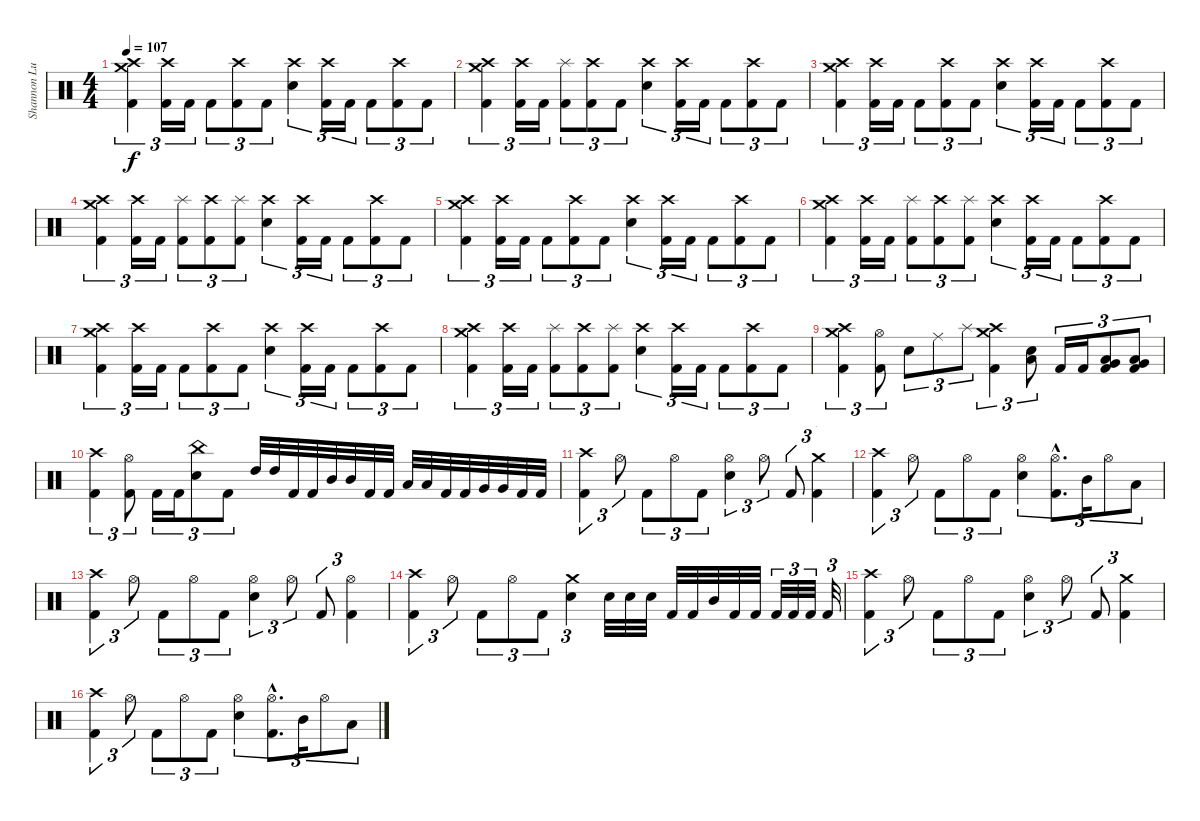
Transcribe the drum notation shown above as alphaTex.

\track ("Shannon Lucas (Drums)" "Shannon Lu") {instrument percussion}
\staff {score}
\articulation defaults
\ts (4 4)
\tempo 107
\clef neutral
\ks c
("Crash medium (hit)" "Crash high (hit)" "Kick (hit) 2").4{tu (3 2) dy f} ("Crash high (hit)" "Kick (hit) 2").16{tu (3 2)} "Kick (hit) 2".16{tu (3 2)} "Kick (hit) 2".8{tu (3 2)} ("Crash high (hit)" "Kick (hit) 2").8{tu (3 2)} "Kick (hit) 2".8{tu (3 2)} ("Crash high (hit)" "Snare (hit) 2").4{tu (3 2)} ("Crash high (hit)" "Kick (hit) 2").16{tu (3 2)} "Kick (hit) 2".16{tu (3 2)} "Kick (hit) 2".8{tu (3 2)} ("Crash high (hit)" "Kick (hit) 2").8{tu (3 2)} "Kick (hit) 2".8{tu (3 2)} |
("Crash medium (hit)" "Crash high (hit)" "Kick (hit) 2").4{tu (3 2)} ("Crash high (hit)" "Kick (hit) 2").16{tu (3 2)} "Kick (hit) 2".16{tu (3 2)} ("Splash (hit)" "Kick (hit) 2").8{tu (3 2)} ("Crash high (hit)" "Kick (hit) 2").8{tu (3 2)} "Kick (hit) 2".8{tu (3 2)} ("Crash high (hit)" "Snare (hit) 2").4{tu (3 2)} ("Crash high (hit)" "Kick (hit) 2").16{tu (3 2)} "Kick (hit) 2".16{tu (3 2)} "Kick (hit) 2".8{tu (3 2)} ("Crash high (hit)" "Kick (hit) 2").8{tu (3 2)} "Kick (hit) 2".8{tu (3 2)} |
("Crash medium (hit)" "Crash high (hit)" "Kick (hit) 2").4{tu (3 2)} ("Crash high (hit)" "Kick (hit) 2").16{tu (3 2)} "Kick (hit) 2".16{tu (3 2)} "Kick (hit) 2".8{tu (3 2)} ("Crash high (hit)" "Kick (hit) 2").8{tu (3 2)} "Kick (hit) 2".8{tu (3 2)} ("Crash high (hit)" "Snare (hit) 2").4{tu (3 2)} ("Crash high (hit)" "Kick (hit) 2").16{tu (3 2)} "Kick (hit) 2".16{tu (3 2)} "Kick (hit) 2".8{tu (3 2)} ("Crash high (hit)" "Kick (hit) 2").8{tu (3 2)} "Kick (hit) 2".8{tu (3 2)} |
("Crash medium (hit)" "Crash high (hit)" "Kick (hit) 2").4{tu (3 2)} ("Crash high (hit)" "Kick (hit) 2").16{tu (3 2)} "Kick (hit) 2".16{tu (3 2)} ("Splash (hit)" "Kick (hit) 2").8{tu (3 2)} ("Crash high (hit)" "Kick (hit) 2").8{tu (3 2)} ("Splash (hit)" "Kick (hit) 2").8{tu (3 2)} ("Crash high (hit)" "Snare (hit) 2").4{tu (3 2)} ("Crash high (hit)" "Kick (hit) 2").16{tu (3 2)} "Kick (hit) 2".16{tu (3 2)} "Kick (hit) 2".8{tu (3 2)} ("Crash high (hit)" "Kick (hit) 2").8{tu (3 2)} "Kick (hit) 2".8{tu (3 2)} |
("Crash medium (hit)" "Crash high (hit)" "Kick (hit) 2").4{tu (3 2)} ("Crash high (hit)" "Kick (hit) 2").16{tu (3 2)} "Kick (hit) 2".16{tu (3 2)} "Kick (hit) 2".8{tu (3 2)} ("Crash high (hit)" "Kick (hit) 2").8{tu (3 2)} "Kick (hit) 2".8{tu (3 2)} ("Crash high (hit)" "Snare (hit) 2").4{tu (3 2)} ("Crash high (hit)" "Kick (hit) 2").16{tu (3 2)} "Kick (hit) 2".16{tu (3 2)} "Kick (hit) 2".8{tu (3 2)} ("Crash high (hit)" "Kick (hit) 2").8{tu (3 2)} "Kick (hit) 2".8{tu (3 2)} |
("Crash medium (hit)" "Crash high (hit)" "Kick (hit) 2").4{tu (3 2)} ("Crash high (hit)" "Kick (hit) 2").16{tu (3 2)} "Kick (hit) 2".16{tu (3 2)} ("Splash (hit)" "Kick (hit) 2").8{tu (3 2)} ("Crash high (hit)" "Kick (hit) 2").8{tu (3 2)} ("Splash (hit)" "Kick (hit) 2").8{tu (3 2)} ("Crash high (hit)" "Snare (hit) 2").4{tu (3 2)} ("Crash high (hit)" "Kick (hit) 2").16{tu (3 2)} "Kick (hit) 2".16{tu (3 2)} "Kick (hit) 2".8{tu (3 2)} ("Crash high (hit)" "Kick (hit) 2").8{tu (3 2)} "Kick (hit) 2".8{tu (3 2)} |
("Crash medium (hit)" "Crash high (hit)" "Kick (hit) 2").4{tu (3 2)} ("Crash high (hit)" "Kick (hit) 2").16{tu (3 2)} "Kick (hit) 2".16{tu (3 2)} "Kick (hit) 2".8{tu (3 2)} ("Crash high (hit)" "Kick (hit) 2").8{tu (3 2)} "Kick (hit) 2".8{tu (3 2)} ("Crash high (hit)" "Snare (hit) 2").4{tu (3 2)} ("Crash high (hit)" "Kick (hit) 2").16{tu (3 2)} "Kick (hit) 2".16{tu (3 2)} "Kick (hit) 2".8{tu (3 2)} ("Crash high (hit)" "Kick (hit) 2").8{tu (3 2)} "Kick (hit) 2".8{tu (3 2)} |
("Crash medium (hit)" "Crash high (hit)" "Kick (hit) 2").4{tu (3 2)} ("Crash high (hit)" "Kick (hit) 2").16{tu (3 2)} "Kick (hit) 2".16{tu (3 2)} ("Splash (hit)" "Kick (hit) 2").8{tu (3 2)} ("Crash high (hit)" "Kick (hit) 2").8{tu (3 2)} ("Splash (hit)" "Kick (hit) 2").8{tu (3 2)} ("Crash high (hit)" "Snare (hit) 2").4{tu (3 2)} ("Crash high (hit)" "Kick (hit) 2").16{tu (3 2)} "Kick (hit) 2".16{tu (3 2)} "Kick (hit) 2".8{tu (3 2)} ("Crash high (hit)" "Kick (hit) 2").8{tu (3 2)} "Kick (hit) 2".8{tu (3 2)} |
("Crash high (hit)" "Crash medium (hit)" "Kick (hit) 2").4{tu (3 2)} ("Hi-Hat (open)" "Kick (hit) 2").8{tu (3 2)} "Snare (hit) 2".8{tu (3 2)} "Ride (middle)".8{tu (3 2)} "Splash (hit)".8{tu (3 2)} ("Crash high (hit)" "Crash medium (hit)" "Kick (hit) 2").4{tu (3 2)} ("Low Floor Tom (hit)" "Snare (hit) 2").8{tu (3 2)} "Kick (hit) 2".16{tu (3 2)} "Kick (hit) 2".16{tu (3 2)} ("Low Tom (hit)" "Very Low Tom (hit)" "Kick (hit) 2").8{tu (3 2)} ("Very Low Tom (hit)" "Low Floor Tom (hit)" "Kick (hit) 2").8{tu (3 2)} |
("Crash high (hit)" "Kick (hit) 2").4{tu (3 2)} ("Hi-Hat (open)" "Kick (hit) 2").8{tu (3 2)} "Kick (hit) 2".16{tu (3 2)} "Kick (hit) 2".16{tu (3 2)} ("China (hit)" "Snare (hit) 2").8{tu (3 2)} "Kick (hit) 2".8{tu (3 2)} "High Tom (hit)".32 "High Tom (hit)".32 "Kick (hit) 2".32 "Kick (hit) 2".32 "Mid Tom (hit)".32 "Mid Tom (hit)".32 "Kick (hit) 2".32 "Kick (hit) 2".32 "Low Tom (hit)".32 "Low Tom (hit)".32 "Kick (hit) 2".32 "Kick (hit) 2".32 "Very Low Tom (hit)".32 "Very Low Tom (hit)".32 "Kick (hit) 2".32 "Kick (hit) 2".32 |
("Crash high (hit)" "Kick (hit) 2").4{tu (3 2)} "Hi-Hat (open)".8{tu (3 2)} "Kick (hit) 2".8{tu (3 2)} "Hi-Hat (open)".8{tu (3 2)} "Kick (hit) 2".8{tu (3 2)} ("Hi-Hat (open)" "Snare (hit) 2").4{tu (3 2)} "Hi-Hat (open)".8{tu (3 2)} "Kick (hit) 2".8{tu (3 2)} ("Crash medium (hit)" "Kick (hit) 2").4{tu (3 2)} |
("Crash high (hit)" "Kick (hit) 2").4{tu (3 2)} "Hi-Hat (open)".8{tu (3 2)} "Kick (hit) 2".8{tu (3 2)} "Hi-Hat (open)".8{tu (3 2)} "Kick (hit) 2".8{tu (3 2)} ("Hi-Hat (open)" "Snare (hit) 2").4{tu (3 2)} ("Hi-Hat (open)"{hac} "Kick (hit) 2"{hac}).8{d tu (3 2)} "Mid Tom (hit)".16{tu (3 2)} "Hi-Hat (open)".8{tu (3 2)} "Low Tom (hit)".8{tu (3 2)} |
("Crash high (hit)" "Kick (hit) 2").4{tu (3 2)} "Hi-Hat (open)".8{tu (3 2)} "Kick (hit) 2".8{tu (3 2)} "Hi-Hat (open)".8{tu (3 2)} "Kick (hit) 2".8{tu (3 2)} ("Hi-Hat (open)" "Snare (hit) 2").4{tu (3 2)} "Hi-Hat (open)".8{tu (3 2)} "Kick (hit) 2".8{tu (3 2)} ("Hi-Hat (open)" "Kick (hit) 2").4{tu (3 2)} |
("Crash high (hit)" "Kick (hit) 2").4{tu (3 2)} "Hi-Hat (open)".8{tu (3 2)} "Kick (hit) 2".8{tu (3 2)} "Hi-Hat (open)".8{tu (3 2)} "Kick (hit) 2".8{tu (3 2)} ("Crash medium (hit)" "Snare (hit) 2").4{tu (3 2)} "Snare (hit) 2".32 "Snare (hit) 2".32 "Snare (hit) 2".32 "Kick (hit) 2".32 "Kick (hit) 2".32 "Mid Tom (hit)".32 "Kick (hit) 2".32 "Kick (hit) 2".32 "Kick (hit) 2".32{tu (3 2)} "Kick (hit) 2".32{tu (3 2)} "Kick (hit) 2".32{tu (3 2)} "Kick (hit) 2".32{tu (3 2)} |
("Crash high (hit)" "Kick (hit) 2").4{tu (3 2)} "Hi-Hat (open)".8{tu (3 2)} "Kick (hit) 2".8{tu (3 2)} "Hi-Hat (open)".8{tu (3 2)} "Kick (hit) 2".8{tu (3 2)} ("Hi-Hat (open)" "Snare (hit) 2").4{tu (3 2)} "Hi-Hat (open)".8{tu (3 2)} "Kick (hit) 2".8{tu (3 2)} ("Crash medium (hit)" "Kick (hit) 2").4{tu (3 2)} |
("Crash high (hit)" "Kick (hit) 2").4{tu (3 2)} "Hi-Hat (open)".8{tu (3 2)} "Kick (hit) 2".8{tu (3 2)} "Hi-Hat (open)".8{tu (3 2)} "Kick (hit) 2".8{tu (3 2)} ("Hi-Hat (open)" "Snare (hit) 2").4{tu (3 2)} ("Hi-Hat (open)"{hac} "Kick (hit) 2"{hac}).8{d tu (3 2)} "Mid Tom (hit)".16{tu (3 2)} "Hi-Hat (open)".8{tu (3 2)} "Low Tom (hit)".8{tu (3 2)}
